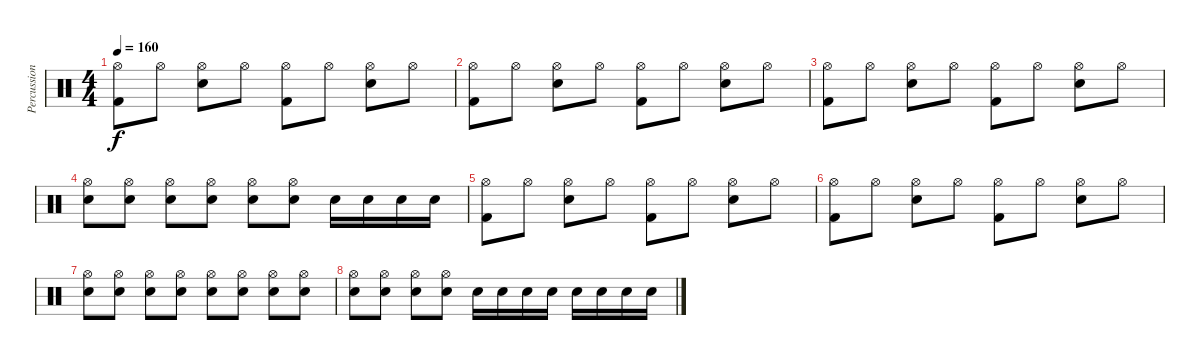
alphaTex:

\track ("Percussion" "Percussion") {instrument percussion}
\staff {score}
\articulation defaults
\ts (4 4)
\tempo 160
\clef neutral
\ks c
("Hi-Hat (open)" "Kick (hit) 2").8{dy f} "Hi-Hat (open)".8 ("Hi-Hat (open)" "Electric Snare (hit)").8 "Hi-Hat (open)".8 ("Hi-Hat (open)" "Kick (hit) 2").8 "Hi-Hat (open)".8 ("Hi-Hat (open)" "Electric Snare (hit)").8 "Hi-Hat (open)".8 |
("Hi-Hat (open)" "Kick (hit) 2").8 "Hi-Hat (open)".8 ("Hi-Hat (open)" "Electric Snare (hit)").8 "Hi-Hat (open)".8 ("Hi-Hat (open)" "Kick (hit) 2").8 "Hi-Hat (open)".8 ("Hi-Hat (open)" "Electric Snare (hit)").8 "Hi-Hat (open)".8 |
("Hi-Hat (open)" "Kick (hit) 2").8 "Hi-Hat (open)".8 ("Hi-Hat (open)" "Electric Snare (hit)").8 "Hi-Hat (open)".8 ("Hi-Hat (open)" "Kick (hit) 2").8 "Hi-Hat (open)".8 ("Hi-Hat (open)" "Electric Snare (hit)").8 "Hi-Hat (open)".8 |
("Hi-Hat (open)" "Electric Snare (hit)").8 ("Hi-Hat (open)" "Electric Snare (hit)").8 ("Hi-Hat (open)" "Electric Snare (hit)").8 ("Hi-Hat (open)" "Electric Snare (hit)").8 ("Hi-Hat (open)" "Electric Snare (hit)").8 ("Hi-Hat (open)" "Electric Snare (hit)").8 "Electric Snare (hit)".16 "Electric Snare (hit)".16 "Electric Snare (hit)".16 "Electric Snare (hit)".16 |
("Hi-Hat (open)" "Kick (hit) 2").8 "Hi-Hat (open)".8 ("Hi-Hat (open)" "Electric Snare (hit)").8 "Hi-Hat (open)".8 ("Hi-Hat (open)" "Kick (hit) 2").8 "Hi-Hat (open)".8 ("Hi-Hat (open)" "Electric Snare (hit)").8 "Hi-Hat (open)".8 |
("Hi-Hat (open)" "Kick (hit) 2").8 "Hi-Hat (open)".8 ("Hi-Hat (open)" "Electric Snare (hit)").8 "Hi-Hat (open)".8 ("Hi-Hat (open)" "Kick (hit) 2").8 "Hi-Hat (open)".8 ("Hi-Hat (open)" "Electric Snare (hit)").8 "Hi-Hat (open)".8 |
("Hi-Hat (open)" "Electric Snare (hit)").8 ("Hi-Hat (open)" "Electric Snare (hit)").8 ("Hi-Hat (open)" "Electric Snare (hit)").8 ("Hi-Hat (open)" "Electric Snare (hit)").8 ("Hi-Hat (open)" "Electric Snare (hit)").8 ("Hi-Hat (open)" "Electric Snare (hit)").8 ("Hi-Hat (open)" "Electric Snare (hit)").8 ("Hi-Hat (open)" "Electric Snare (hit)").8 |
("Hi-Hat (open)" "Electric Snare (hit)").8 ("Hi-Hat (open)" "Electric Snare (hit)").8 ("Hi-Hat (open)" "Electric Snare (hit)").8 ("Hi-Hat (open)" "Electric Snare (hit)").8 "Electric Snare (hit)".16 "Electric Snare (hit)".16 "Electric Snare (hit)".16 "Electric Snare (hit)".16 "Electric Snare (hit)".16 "Electric Snare (hit)".16 "Electric Snare (hit)".16 "Electric Snare (hit)".16
